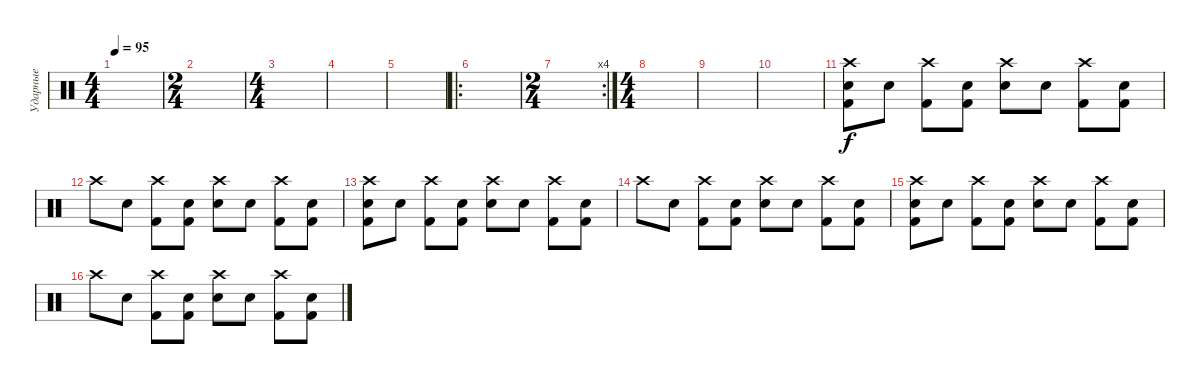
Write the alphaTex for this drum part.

\track ("Ударные" "Ударные") {instrument percussion}
\staff {score}
\articulation defaults
\ts (4 4)
\tempo 95
\clef neutral
\ks c
|
\ts (2 4)
|
\ts (4 4)
|
|
|
\ro
|
\rc 4
\ts (2 4)
|
\ts (4 4)
|
|
|
("Crash high (hit)" "Kick (hit) 2" "Snare (hit) 2").8{volume 16} "Snare (hit)".8 ("Crash high (hit)" "Kick (hit) 2").8 ("Snare (hit)" "Kick (hit) 2").8 ("Crash high (hit)" "Electric Snare (hit)").8 "Snare (hit)".8 ("Crash high (hit)" "Kick (hit) 2").8 ("Snare (hit)" "Kick (hit) 2").8 |
"Crash high (hit)".8 "Snare (hit)".8 ("Crash high (hit)" "Kick (hit) 2").8 ("Snare (hit)" "Kick (hit) 2").8 ("Crash high (hit)" "Electric Snare (hit)").8 "Snare (hit)".8 ("Crash high (hit)" "Kick (hit) 2").8 ("Snare (hit)" "Kick (hit) 2").8 |
("Crash high (hit)" "Kick (hit) 2" "Snare (hit) 2").8{volume 16} "Snare (hit)".8 ("Crash high (hit)" "Kick (hit) 2").8 ("Snare (hit)" "Kick (hit) 2").8 ("Crash high (hit)" "Electric Snare (hit)").8 "Snare (hit)".8 ("Crash high (hit)" "Kick (hit) 2").8 ("Snare (hit)" "Kick (hit) 2").8 |
"Crash high (hit)".8 "Snare (hit)".8 ("Crash high (hit)" "Kick (hit) 2").8 ("Snare (hit)" "Kick (hit) 2").8 ("Crash high (hit)" "Electric Snare (hit)").8 "Snare (hit)".8 ("Crash high (hit)" "Kick (hit) 2").8 ("Snare (hit)" "Kick (hit) 2").8 |
("Crash high (hit)" "Kick (hit) 2" "Snare (hit) 2").8 "Snare (hit)".8 ("Crash high (hit)" "Kick (hit) 2").8 ("Snare (hit)" "Kick (hit) 2").8 ("Crash high (hit)" "Electric Snare (hit)").8 "Snare (hit)".8 ("Crash high (hit)" "Kick (hit) 2").8 ("Snare (hit)" "Kick (hit) 2").8 |
"Crash high (hit)".8 "Snare (hit)".8 ("Crash high (hit)" "Kick (hit) 2").8 ("Snare (hit)" "Kick (hit) 2").8 ("Crash high (hit)" "Electric Snare (hit)").8 "Snare (hit)".8 ("Crash high (hit)" "Kick (hit) 2").8 ("Snare (hit)" "Kick (hit) 2").8
